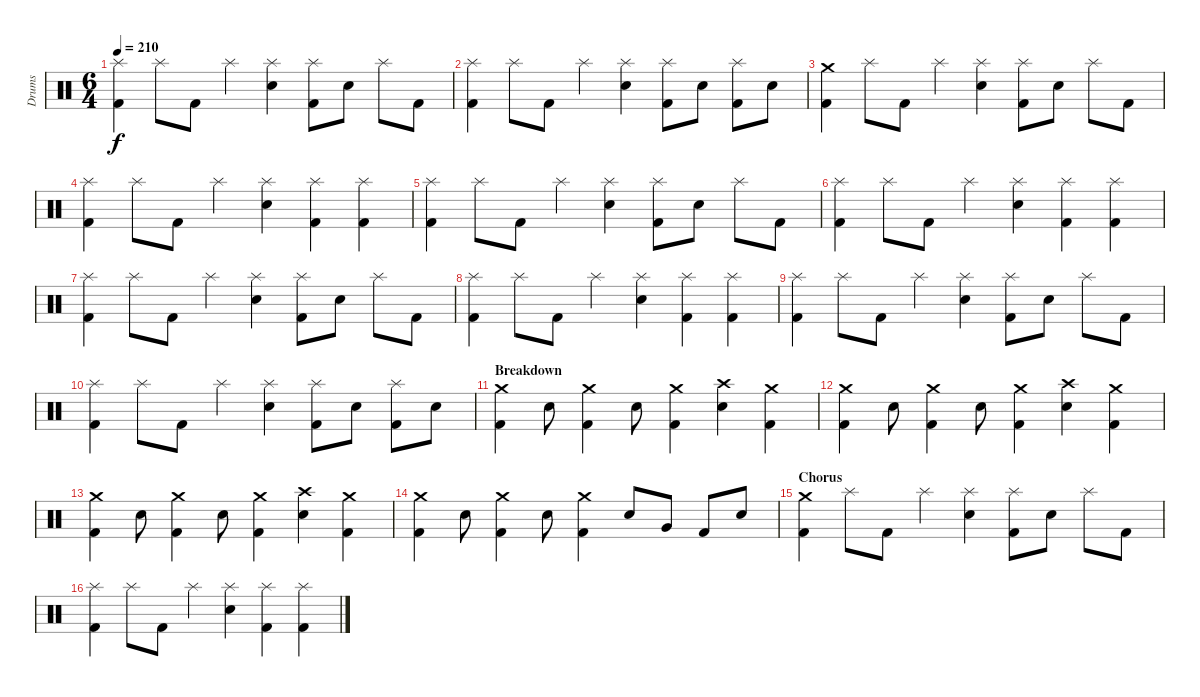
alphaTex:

\track ("Drums" "Drums") {instrument percussion}
\staff {score}
\articulation defaults
\ts (6 4)
\tempo 210
\clef neutral
\ks c
("Splash (hit)" "Kick (hit) 2").4{dy f} "Splash (hit)".8 "Kick (hit) 2".8 "Splash (hit)".4 ("Splash (hit)" "Electric Snare (hit)").4 ("Splash (hit)" "Kick (hit) 2").8 "Electric Snare (hit)".8 "Splash (hit)".8 "Kick (hit) 2".8 |
("Splash (hit)" "Kick (hit) 2").4 "Splash (hit)".8 "Kick (hit) 2".8 "Splash (hit)".4 ("Splash (hit)" "Electric Snare (hit)").4 ("Splash (hit)" "Kick (hit) 2").8 "Electric Snare (hit)".8 ("Splash (hit)" "Kick (hit) 2").8 "Electric Snare (hit)".8 |
("Crash medium (hit)" "Kick (hit) 2").4 "Splash (hit)".8 "Kick (hit) 2".8 "Splash (hit)".4 ("Splash (hit)" "Electric Snare (hit)").4 ("Splash (hit)" "Kick (hit) 2").8 "Electric Snare (hit)".8 "Splash (hit)".8 "Kick (hit) 2".8 |
("Splash (hit)" "Kick (hit) 2").4 "Splash (hit)".8 "Kick (hit) 2".8 "Splash (hit)".4 ("Splash (hit)" "Electric Snare (hit)").4 ("Splash (hit)" "Kick (hit) 2").4 ("Splash (hit)" "Kick (hit) 2").4 |
("Splash (hit)" "Kick (hit) 2").4 "Splash (hit)".8 "Kick (hit) 2".8 "Splash (hit)".4 ("Splash (hit)" "Electric Snare (hit)").4 ("Splash (hit)" "Kick (hit) 2").8 "Electric Snare (hit)".8 "Splash (hit)".8 "Kick (hit) 2".8 |
("Splash (hit)" "Kick (hit) 2").4 "Splash (hit)".8 "Kick (hit) 2".8 "Splash (hit)".4 ("Splash (hit)" "Electric Snare (hit)").4 ("Splash (hit)" "Kick (hit) 2").4 ("Splash (hit)" "Kick (hit) 2").4 |
("Splash (hit)" "Kick (hit) 2").4 "Splash (hit)".8 "Kick (hit) 2".8 "Splash (hit)".4 ("Splash (hit)" "Electric Snare (hit)").4 ("Splash (hit)" "Kick (hit) 2").8 "Electric Snare (hit)".8 "Splash (hit)".8 "Kick (hit) 2".8 |
("Splash (hit)" "Kick (hit) 2").4 "Splash (hit)".8 "Kick (hit) 2".8 "Splash (hit)".4 ("Splash (hit)" "Electric Snare (hit)").4 ("Splash (hit)" "Kick (hit) 2").4 ("Splash (hit)" "Kick (hit) 2").4 |
("Splash (hit)" "Kick (hit) 2").4 "Splash (hit)".8 "Kick (hit) 2".8 "Splash (hit)".4 ("Splash (hit)" "Electric Snare (hit)").4 ("Splash (hit)" "Kick (hit) 2").8 "Electric Snare (hit)".8 "Splash (hit)".8 "Kick (hit) 2".8 |
("Splash (hit)" "Kick (hit) 2").4 "Splash (hit)".8 "Kick (hit) 2".8 "Splash (hit)".4 ("Splash (hit)" "Electric Snare (hit)").4 ("Splash (hit)" "Kick (hit) 2").8 "Electric Snare (hit)".8 ("Splash (hit)" "Kick (hit) 2").8 "Electric Snare (hit)".8 |
\section ("" "Breakdown")
("Crash medium (hit)" "Kick (hit) 2").4 "Electric Snare (hit)".8 ("Crash medium (hit)" "Kick (hit) 2").4 "Electric Snare (hit)".8 ("Crash medium (hit)" "Kick (hit) 2").4 ("Crash high (hit)" "Electric Snare (hit)").4 ("Crash medium (hit)" "Kick (hit) 2").4 |
("Crash medium (hit)" "Kick (hit) 2").4 "Electric Snare (hit)".8 ("Crash medium (hit)" "Kick (hit) 2").4 "Electric Snare (hit)".8 ("Crash medium (hit)" "Kick (hit) 2").4 ("Crash high (hit)" "Electric Snare (hit)").4 ("Crash medium (hit)" "Kick (hit) 2").4 |
("Crash medium (hit)" "Kick (hit) 2").4 "Electric Snare (hit)".8 ("Crash medium (hit)" "Kick (hit) 2").4 "Electric Snare (hit)".8 ("Crash medium (hit)" "Kick (hit) 2").4 ("Crash high (hit)" "Electric Snare (hit)").4 ("Crash medium (hit)" "Kick (hit) 2").4 |
("Crash medium (hit)" "Kick (hit) 2").4 "Electric Snare (hit)".8 ("Crash medium (hit)" "Kick (hit) 2").4 "Electric Snare (hit)".8 ("Crash medium (hit)" "Kick (hit) 2").4 "Electric Snare (hit)".8 "Very Low Tom (hit)".8 "Kick (hit) 2".8 "Electric Snare (hit)".8 |
\section ("" "Chorus")
("Crash medium (hit)" "Kick (hit) 2").4 "Splash (hit)".8 "Kick (hit) 2".8 "Splash (hit)".4 ("Splash (hit)" "Electric Snare (hit)").4 ("Splash (hit)" "Kick (hit) 2").8 "Electric Snare (hit)".8 "Splash (hit)".8 "Kick (hit) 2".8 |
("Splash (hit)" "Kick (hit) 2").4 "Splash (hit)".8 "Kick (hit) 2".8 "Splash (hit)".4 ("Splash (hit)" "Electric Snare (hit)").4 ("Splash (hit)" "Kick (hit) 2").4 ("Splash (hit)" "Kick (hit) 2").4
